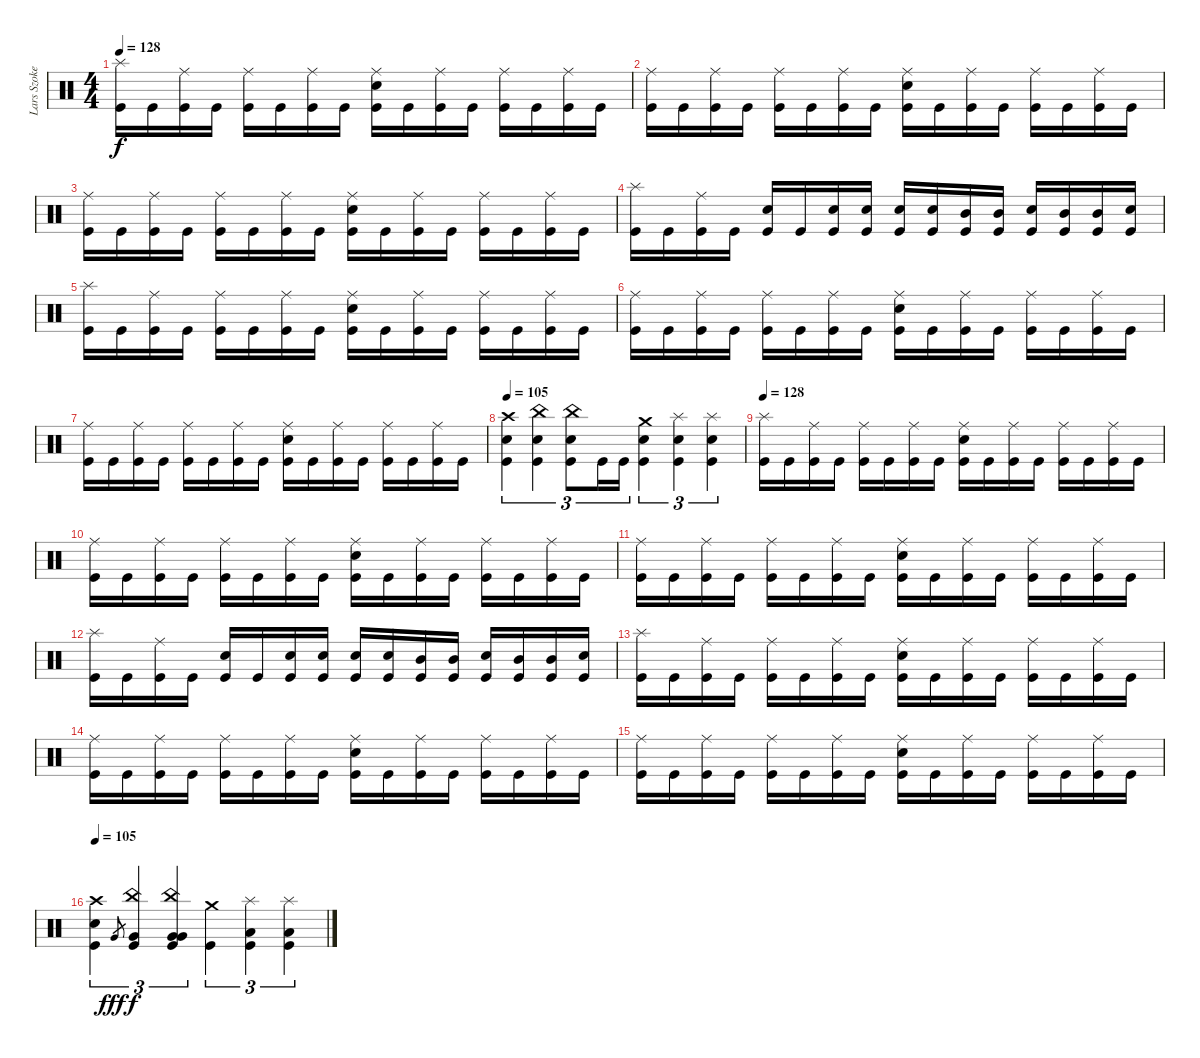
\track ("Lars Szoke" "Lars Szoke") {instrument percussion}
\staff {score}
\articulation defaults
\ts (4 4)
\tempo 128
\clef neutral
\ks c
("Splash (hit)" "Kick (hit)").16{dy f} "Kick (hit)".16 ("Ride (middle)" "Kick (hit)").16 "Kick (hit)".16 ("Ride (middle)" "Kick (hit)").16 "Kick (hit)".16 ("Ride (middle)" "Kick (hit)").16 "Kick (hit)".16 ("Ride (middle)" "Snare (hit) 2" "Kick (hit)").16 "Kick (hit)".16 ("Ride (middle)" "Kick (hit)").16 "Kick (hit)".16 ("Ride (middle)" "Kick (hit)").16 "Kick (hit)".16 ("Ride (middle)" "Kick (hit)").16 "Kick (hit)".16 |
("Ride (middle)" "Kick (hit)").16 "Kick (hit)".16 ("Ride (middle)" "Kick (hit)").16 "Kick (hit)".16 ("Ride (middle)" "Kick (hit)").16 "Kick (hit)".16 ("Ride (middle)" "Kick (hit)").16 "Kick (hit)".16 ("Ride (middle)" "Snare (hit) 2" "Kick (hit)").16 "Kick (hit)".16 ("Ride (middle)" "Kick (hit)").16 "Kick (hit)".16 ("Ride (middle)" "Kick (hit)").16 "Kick (hit)".16 ("Ride (middle)" "Kick (hit)").16 "Kick (hit)".16 |
("Ride (middle)" "Kick (hit)").16 "Kick (hit)".16 ("Ride (middle)" "Kick (hit)").16 "Kick (hit)".16 ("Ride (middle)" "Kick (hit)").16 "Kick (hit)".16 ("Ride (middle)" "Kick (hit)").16 "Kick (hit)".16 ("Ride (middle)" "Snare (hit) 2" "Kick (hit)").16 "Kick (hit)".16 ("Ride (middle)" "Kick (hit)").16 "Kick (hit)".16 ("Ride (middle)" "Kick (hit)").16 "Kick (hit)".16 ("Ride (middle)" "Kick (hit)").16 "Kick (hit)".16 |
("Splash (hit)" "Kick (hit)").16 "Kick (hit)".16 ("Ride (middle)" "Kick (hit)").16 "Kick (hit)".16 ("Snare (hit) 2" "Kick (hit)").16 "Kick (hit)".16 ("Snare (hit) 2" "Kick (hit)").16 ("Snare (hit) 2" "Kick (hit)").16 ("Snare (hit) 2" "Kick (hit)").16 ("Snare (hit) 2" "Kick (hit)").16 ("Mid Tom (hit)" "Kick (hit)").16 ("Mid Tom (hit)" "Kick (hit)").16 ("Snare (hit) 2" "Kick (hit)").16 ("Mid Tom (hit)" "Kick (hit)").16 ("Mid Tom (hit)" "Kick (hit)").16 ("Snare (hit) 2" "Kick (hit)").16 |
("Splash (hit)" "Kick (hit)").16 "Kick (hit)".16 ("Ride (middle)" "Kick (hit)").16 "Kick (hit)".16 ("Ride (middle)" "Kick (hit)").16 "Kick (hit)".16 ("Ride (middle)" "Kick (hit)").16 "Kick (hit)".16 ("Ride (middle)" "Snare (hit) 2" "Kick (hit)").16 "Kick (hit)".16 ("Ride (middle)" "Kick (hit)").16 "Kick (hit)".16 ("Ride (middle)" "Kick (hit)").16 "Kick (hit)".16 ("Ride (middle)" "Kick (hit)").16 "Kick (hit)".16 |
("Ride (middle)" "Kick (hit)").16 "Kick (hit)".16 ("Ride (middle)" "Kick (hit)").16 "Kick (hit)".16 ("Ride (middle)" "Kick (hit)").16 "Kick (hit)".16 ("Ride (middle)" "Kick (hit)").16 "Kick (hit)".16 ("Ride (middle)" "Snare (hit) 2" "Kick (hit)").16 "Kick (hit)".16 ("Ride (middle)" "Kick (hit)").16 "Kick (hit)".16 ("Ride (middle)" "Kick (hit)").16 "Kick (hit)".16 ("Ride (middle)" "Kick (hit)").16 "Kick (hit)".16 |
("Ride (middle)" "Kick (hit)").16 "Kick (hit)".16 ("Ride (middle)" "Kick (hit)").16 "Kick (hit)".16 ("Ride (middle)" "Kick (hit)").16 "Kick (hit)".16 ("Ride (middle)" "Kick (hit)").16 "Kick (hit)".16 ("Ride (middle)" "Snare (hit) 2" "Kick (hit)").16 "Kick (hit)".16 ("Ride (middle)" "Kick (hit)").16 "Kick (hit)".16 ("Ride (middle)" "Kick (hit)").16 "Kick (hit)".16 ("Ride (middle)" "Kick (hit)").16 "Kick (hit)".16 |
\tempo 105
("Crash high (hit)" "Snare (hit) 2" "Kick (hit)").4{tu (3 2)} ("China (hit)" "Snare (hit) 2" "Kick (hit)").4{tu (3 2)} ("China (hit)" "Snare (hit) 2" "Kick (hit)").8{tu (3 2)} "Kick (hit)".16{tu (3 2)} "Kick (hit)".16{tu (3 2)} ("Crash medium (hit)" "Snare (hit) 2" "Kick (hit)").4{tu (3 2)} ("Splash (hit)" "Snare (hit) 2" "Kick (hit)").4{tu (3 2)} ("Splash (hit)" "Snare (hit) 2" "Kick (hit)").4{tu (3 2)} |
\tempo 128
("Splash (hit)" "Kick (hit)").16 "Kick (hit)".16 ("Ride (middle)" "Kick (hit)").16 "Kick (hit)".16 ("Ride (middle)" "Kick (hit)").16 "Kick (hit)".16 ("Ride (middle)" "Kick (hit)").16 "Kick (hit)".16 ("Ride (middle)" "Snare (hit) 2" "Kick (hit)").16 "Kick (hit)".16 ("Ride (middle)" "Kick (hit)").16 "Kick (hit)".16 ("Ride (middle)" "Kick (hit)").16 "Kick (hit)".16 ("Ride (middle)" "Kick (hit)").16 "Kick (hit)".16 |
("Ride (middle)" "Kick (hit)").16 "Kick (hit)".16 ("Ride (middle)" "Kick (hit)").16 "Kick (hit)".16 ("Ride (middle)" "Kick (hit)").16 "Kick (hit)".16 ("Ride (middle)" "Kick (hit)").16 "Kick (hit)".16 ("Ride (middle)" "Snare (hit) 2" "Kick (hit)").16 "Kick (hit)".16 ("Ride (middle)" "Kick (hit)").16 "Kick (hit)".16 ("Ride (middle)" "Kick (hit)").16 "Kick (hit)".16 ("Ride (middle)" "Kick (hit)").16 "Kick (hit)".16 |
("Ride (middle)" "Kick (hit)").16 "Kick (hit)".16 ("Ride (middle)" "Kick (hit)").16 "Kick (hit)".16 ("Ride (middle)" "Kick (hit)").16 "Kick (hit)".16 ("Ride (middle)" "Kick (hit)").16 "Kick (hit)".16 ("Ride (middle)" "Snare (hit) 2" "Kick (hit)").16 "Kick (hit)".16 ("Ride (middle)" "Kick (hit)").16 "Kick (hit)".16 ("Ride (middle)" "Kick (hit)").16 "Kick (hit)".16 ("Ride (middle)" "Kick (hit)").16 "Kick (hit)".16 |
("Splash (hit)" "Kick (hit)").16 "Kick (hit)".16 ("Ride (middle)" "Kick (hit)").16 "Kick (hit)".16 ("Snare (hit) 2" "Kick (hit)").16 "Kick (hit)".16 ("Snare (hit) 2" "Kick (hit)").16 ("Snare (hit) 2" "Kick (hit)").16 ("Snare (hit) 2" "Kick (hit)").16 ("Snare (hit) 2" "Kick (hit)").16 ("Mid Tom (hit)" "Kick (hit)").16 ("Mid Tom (hit)" "Kick (hit)").16 ("Snare (hit) 2" "Kick (hit)").16 ("Mid Tom (hit)" "Kick (hit)").16 ("Mid Tom (hit)" "Kick (hit)").16 ("Snare (hit) 2" "Kick (hit)").16 |
("Splash (hit)" "Kick (hit)").16 "Kick (hit)".16 ("Ride (middle)" "Kick (hit)").16 "Kick (hit)".16 ("Ride (middle)" "Kick (hit)").16 "Kick (hit)".16 ("Ride (middle)" "Kick (hit)").16 "Kick (hit)".16 ("Ride (middle)" "Snare (hit) 2" "Kick (hit)").16 "Kick (hit)".16 ("Ride (middle)" "Kick (hit)").16 "Kick (hit)".16 ("Ride (middle)" "Kick (hit)").16 "Kick (hit)".16 ("Ride (middle)" "Kick (hit)").16 "Kick (hit)".16 |
("Ride (middle)" "Kick (hit)").16 "Kick (hit)".16 ("Ride (middle)" "Kick (hit)").16 "Kick (hit)".16 ("Ride (middle)" "Kick (hit)").16 "Kick (hit)".16 ("Ride (middle)" "Kick (hit)").16 "Kick (hit)".16 ("Ride (middle)" "Snare (hit) 2" "Kick (hit)").16 "Kick (hit)".16 ("Ride (middle)" "Kick (hit)").16 "Kick (hit)".16 ("Ride (middle)" "Kick (hit)").16 "Kick (hit)".16 ("Ride (middle)" "Kick (hit)").16 "Kick (hit)".16 |
("Ride (middle)" "Kick (hit)").16 "Kick (hit)".16 ("Ride (middle)" "Kick (hit)").16 "Kick (hit)".16 ("Ride (middle)" "Kick (hit)").16 "Kick (hit)".16 ("Ride (middle)" "Kick (hit)").16 "Kick (hit)".16 ("Ride (middle)" "Snare (hit) 2" "Kick (hit)").16 "Kick (hit)".16 ("Ride (middle)" "Kick (hit)").16 "Kick (hit)".16 ("Ride (middle)" "Kick (hit)").16 "Kick (hit)".16 ("Ride (middle)" "Kick (hit)").16 "Kick (hit)".16 |
\tempo 105
("Crash high (hit)" "Snare (hit) 2" "Kick (hit)").4{tu (3 2)} "Very Low Tom (hit)".8{gr dy fff} ("China (hit)" "Very Low Tom (hit)" "Kick (hit)").4{tu (3 2) dy f} ("China (hit)" "Very Low Tom (hit)" "Very Low Tom (hit)" "Kick (hit)").4{tu (3 2)} ("Crash medium (hit)" "Kick (hit)").4{tu (3 2)} ("Splash (hit)" "Low Floor Tom (hit)" "Kick (hit)").4{tu (3 2)} ("Splash (hit)" "Low Floor Tom (hit)" "Kick (hit)").4{tu (3 2)}
